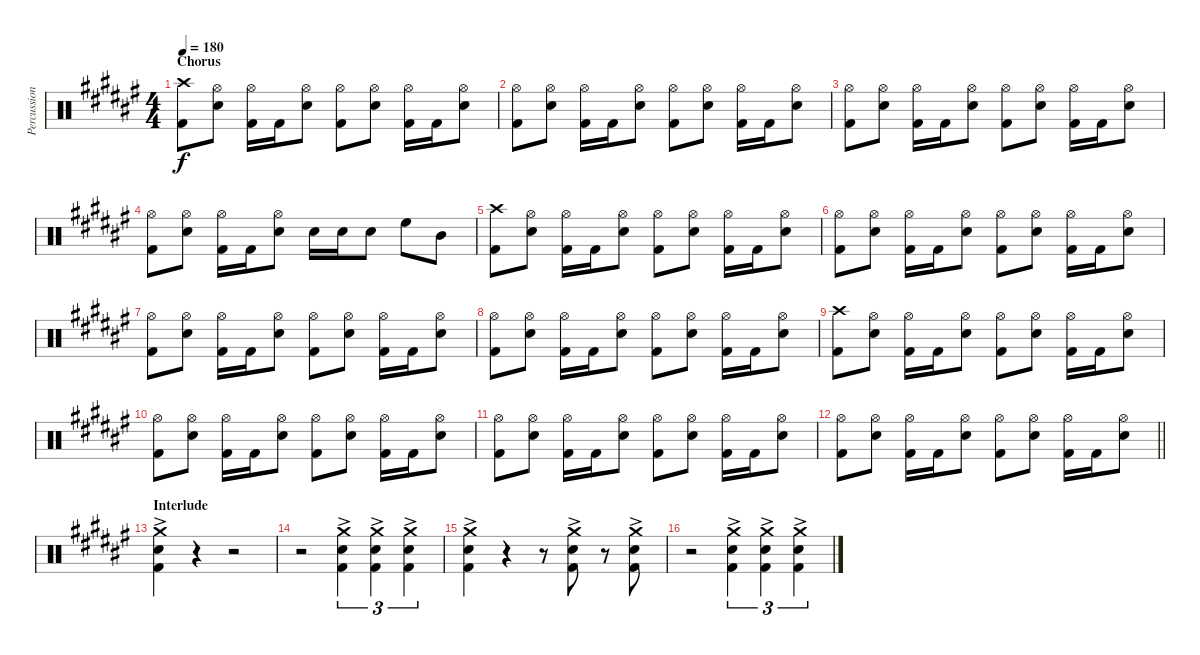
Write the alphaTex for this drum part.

\track ("Percussion" "Percussion") {instrument percussion}
\staff {score}
\articulation defaults
\ts (4 4)
\section ("" "Chorus")
\tempo 180
\clef neutral
\ks f#
("Crash high (hit)" "Kick (hit) 2").8{dy f} ("Hi-Hat (open)" "Snare (hit) 2").8 ("Hi-Hat (open)" "Kick (hit) 2").16 "Kick (hit) 2".16 ("Hi-Hat (open)" "Snare (hit) 2").8 ("Hi-Hat (open)" "Kick (hit) 2").8 ("Hi-Hat (open)" "Snare (hit) 2").8 ("Hi-Hat (open)" "Kick (hit) 2").16 "Kick (hit) 2".16 ("Hi-Hat (open)" "Snare (hit) 2").8 |
("Hi-Hat (open)" "Kick (hit) 2").8 ("Hi-Hat (open)" "Snare (hit) 2").8 ("Hi-Hat (open)" "Kick (hit) 2").16 "Kick (hit) 2".16 ("Hi-Hat (open)" "Snare (hit) 2").8 ("Hi-Hat (open)" "Kick (hit) 2").8 ("Hi-Hat (open)" "Snare (hit) 2").8 ("Hi-Hat (open)" "Kick (hit) 2").16 "Kick (hit) 2".16 ("Hi-Hat (open)" "Snare (hit) 2").8 |
("Hi-Hat (open)" "Kick (hit) 2").8 ("Hi-Hat (open)" "Snare (hit) 2").8 ("Hi-Hat (open)" "Kick (hit) 2").16 "Kick (hit) 2".16 ("Hi-Hat (open)" "Snare (hit) 2").8 ("Hi-Hat (open)" "Kick (hit) 2").8 ("Hi-Hat (open)" "Snare (hit) 2").8 ("Hi-Hat (open)" "Kick (hit) 2").16 "Kick (hit) 2".16 ("Hi-Hat (open)" "Snare (hit) 2").8 |
("Hi-Hat (open)" "Kick (hit) 2").8 ("Hi-Hat (open)" "Snare (hit) 2").8 ("Hi-Hat (open)" "Kick (hit) 2").16 "Kick (hit) 2".16 ("Hi-Hat (open)" "Snare (hit) 2").8 "Snare (hit) 2".16 "Snare (hit) 2".16 "Snare (hit) 2".8 "High Floor Tom (hit)".8 "Mid Tom (hit)".8 |
("Crash high (hit)" "Kick (hit) 2").8 ("Hi-Hat (open)" "Snare (hit) 2").8 ("Hi-Hat (open)" "Kick (hit) 2").16 "Kick (hit) 2".16 ("Hi-Hat (open)" "Snare (hit) 2").8 ("Hi-Hat (open)" "Kick (hit) 2").8 ("Hi-Hat (open)" "Snare (hit) 2").8 ("Hi-Hat (open)" "Kick (hit) 2").16 "Kick (hit) 2".16 ("Hi-Hat (open)" "Snare (hit) 2").8 |
("Hi-Hat (open)" "Kick (hit) 2").8 ("Hi-Hat (open)" "Snare (hit) 2").8 ("Hi-Hat (open)" "Kick (hit) 2").16 "Kick (hit) 2".16 ("Hi-Hat (open)" "Snare (hit) 2").8 ("Hi-Hat (open)" "Kick (hit) 2").8 ("Hi-Hat (open)" "Snare (hit) 2").8 ("Hi-Hat (open)" "Kick (hit) 2").16 "Kick (hit) 2".16 ("Hi-Hat (open)" "Snare (hit) 2").8 |
("Hi-Hat (open)" "Kick (hit) 2").8 ("Hi-Hat (open)" "Snare (hit) 2").8 ("Hi-Hat (open)" "Kick (hit) 2").16 "Kick (hit) 2".16 ("Hi-Hat (open)" "Snare (hit) 2").8 ("Hi-Hat (open)" "Kick (hit) 2").8 ("Hi-Hat (open)" "Snare (hit) 2").8 ("Hi-Hat (open)" "Kick (hit) 2").16 "Kick (hit) 2".16 ("Hi-Hat (open)" "Snare (hit) 2").8 |
("Hi-Hat (open)" "Kick (hit) 2").8 ("Hi-Hat (open)" "Snare (hit) 2").8 ("Hi-Hat (open)" "Kick (hit) 2").16 "Kick (hit) 2".16 ("Hi-Hat (open)" "Snare (hit) 2").8 ("Hi-Hat (open)" "Kick (hit) 2").8 ("Hi-Hat (open)" "Snare (hit) 2").8 ("Hi-Hat (open)" "Kick (hit) 2").16 "Kick (hit) 2".16 ("Hi-Hat (open)" "Snare (hit) 2").8 |
("Crash high (hit)" "Kick (hit) 2").8 ("Hi-Hat (open)" "Snare (hit) 2").8 ("Hi-Hat (open)" "Kick (hit) 2").16 "Kick (hit) 2".16 ("Hi-Hat (open)" "Snare (hit) 2").8 ("Hi-Hat (open)" "Kick (hit) 2").8 ("Hi-Hat (open)" "Snare (hit) 2").8 ("Hi-Hat (open)" "Kick (hit) 2").16 "Kick (hit) 2".16 ("Hi-Hat (open)" "Snare (hit) 2").8 |
("Hi-Hat (open)" "Kick (hit) 2").8 ("Hi-Hat (open)" "Snare (hit) 2").8 ("Hi-Hat (open)" "Kick (hit) 2").16 "Kick (hit) 2".16 ("Hi-Hat (open)" "Snare (hit) 2").8 ("Hi-Hat (open)" "Kick (hit) 2").8 ("Hi-Hat (open)" "Snare (hit) 2").8 ("Hi-Hat (open)" "Kick (hit) 2").16 "Kick (hit) 2".16 ("Hi-Hat (open)" "Snare (hit) 2").8 |
("Hi-Hat (open)" "Kick (hit) 2").8 ("Hi-Hat (open)" "Snare (hit) 2").8 ("Hi-Hat (open)" "Kick (hit) 2").16 "Kick (hit) 2".16 ("Hi-Hat (open)" "Snare (hit) 2").8 ("Hi-Hat (open)" "Kick (hit) 2").8 ("Hi-Hat (open)" "Snare (hit) 2").8 ("Hi-Hat (open)" "Kick (hit) 2").16 "Kick (hit) 2".16 ("Hi-Hat (open)" "Snare (hit) 2").8 |
\barLineRight lightlight
("Hi-Hat (open)" "Kick (hit) 2").8 ("Hi-Hat (open)" "Snare (hit) 2").8 ("Hi-Hat (open)" "Kick (hit) 2").16 "Kick (hit) 2".16 ("Hi-Hat (open)" "Snare (hit) 2").8 ("Hi-Hat (open)" "Kick (hit) 2").8 ("Hi-Hat (open)" "Snare (hit) 2").8 ("Hi-Hat (open)" "Kick (hit) 2").16 "Kick (hit) 2".16 ("Hi-Hat (open)" "Snare (hit) 2").8 |
\section ("" "Interlude")
("Crash medium (hit)"{ac} "Snare (hit) 2"{ac} "Kick (hit) 2"{ac}).4 r.4 r.2 |
r.2 ("Crash medium (hit)"{ac} "Snare (hit) 2"{ac} "Kick (hit) 2"{ac}).4{tu (3 2)} ("Crash medium (hit)"{ac} "Snare (hit) 2"{ac} "Kick (hit) 2"{ac}).4{tu (3 2)} ("Crash medium (hit)"{ac} "Snare (hit) 2"{ac} "Kick (hit) 2"{ac}).4{tu (3 2)} |
("Crash medium (hit)"{ac} "Snare (hit) 2"{ac} "Kick (hit) 2"{ac}).4 r.4 r.8 ("Crash medium (hit)"{ac} "Snare (hit) 2"{ac} "Kick (hit) 2"{ac}).8 r.8 ("Crash medium (hit)"{ac} "Snare (hit) 2"{ac} "Kick (hit) 2"{ac}).8 |
r.2 ("Crash medium (hit)"{ac} "Snare (hit) 2"{ac} "Kick (hit) 2"{ac}).4{tu (3 2)} ("Crash medium (hit)"{ac} "Snare (hit) 2"{ac} "Kick (hit) 2"{ac}).4{tu (3 2)} ("Crash medium (hit)"{ac} "Snare (hit) 2"{ac} "Kick (hit) 2"{ac}).4{tu (3 2)}
